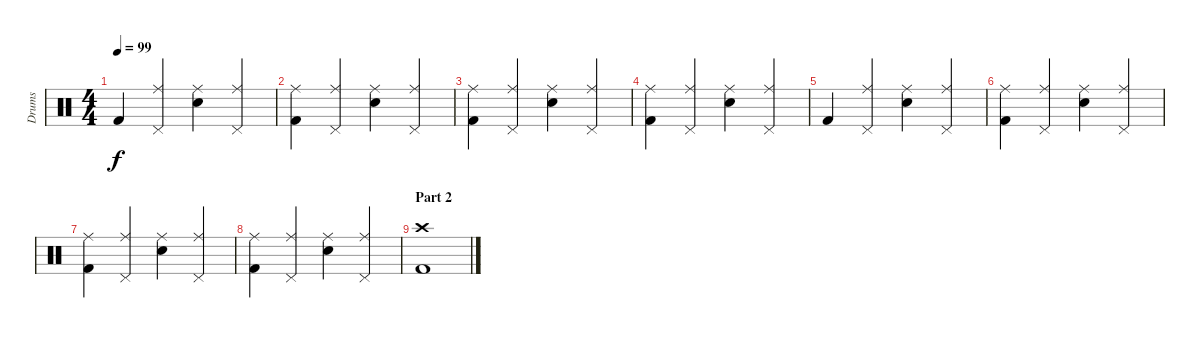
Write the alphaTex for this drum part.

\track ("Drums" "Drums") {instrument percussion}
\staff {score}
\articulation defaults
\ts (4 4)
\tempo 99
\clef neutral
\ks c "Kick (hit) 2".4{dy f}
("Ride (middle)" "Pedal Hi-Hat (hit)").4 ("Ride (middle)" "Snare (hit) 2").4 ("Ride (middle)" "Pedal Hi-Hat (hit)").4 |
("Ride (middle)" "Kick (hit) 2").4 ("Ride (middle)" "Pedal Hi-Hat (hit)").4 ("Ride (middle)" "Snare (hit) 2").4 ("Ride (middle)" "Pedal Hi-Hat (hit)").4 |
("Ride (middle)" "Kick (hit) 2").4 ("Ride (middle)" "Pedal Hi-Hat (hit)").4 ("Ride (middle)" "Snare (hit) 2").4 ("Ride (middle)" "Pedal Hi-Hat (hit)").4 |
("Ride (middle)" "Kick (hit) 2").4 ("Ride (middle)" "Pedal Hi-Hat (hit)").4 ("Ride (middle)" "Snare (hit) 2").4 ("Ride (middle)" "Pedal Hi-Hat (hit)").4 |
"Kick (hit) 2".4 ("Ride (middle)" "Pedal Hi-Hat (hit)").4 ("Ride (middle)" "Snare (hit) 2").4 ("Ride (middle)" "Pedal Hi-Hat (hit)").4 |
("Ride (middle)" "Kick (hit) 2").4 ("Ride (middle)" "Pedal Hi-Hat (hit)").4 ("Ride (middle)" "Snare (hit) 2").4 ("Ride (middle)" "Pedal Hi-Hat (hit)").4 |
("Ride (middle)" "Kick (hit) 2").4 ("Ride (middle)" "Pedal Hi-Hat (hit)").4 ("Ride (middle)" "Snare (hit) 2").4 ("Ride (middle)" "Pedal Hi-Hat (hit)").4 |
("Ride (middle)" "Kick (hit) 2").4 ("Ride (middle)" "Pedal Hi-Hat (hit)").4 ("Ride (middle)" "Snare (hit) 2").4 ("Ride (middle)" "Pedal Hi-Hat (hit)").4 |
\section ("" "Part 2")
("Crash high (hit)" "Kick (hit) 2").1
